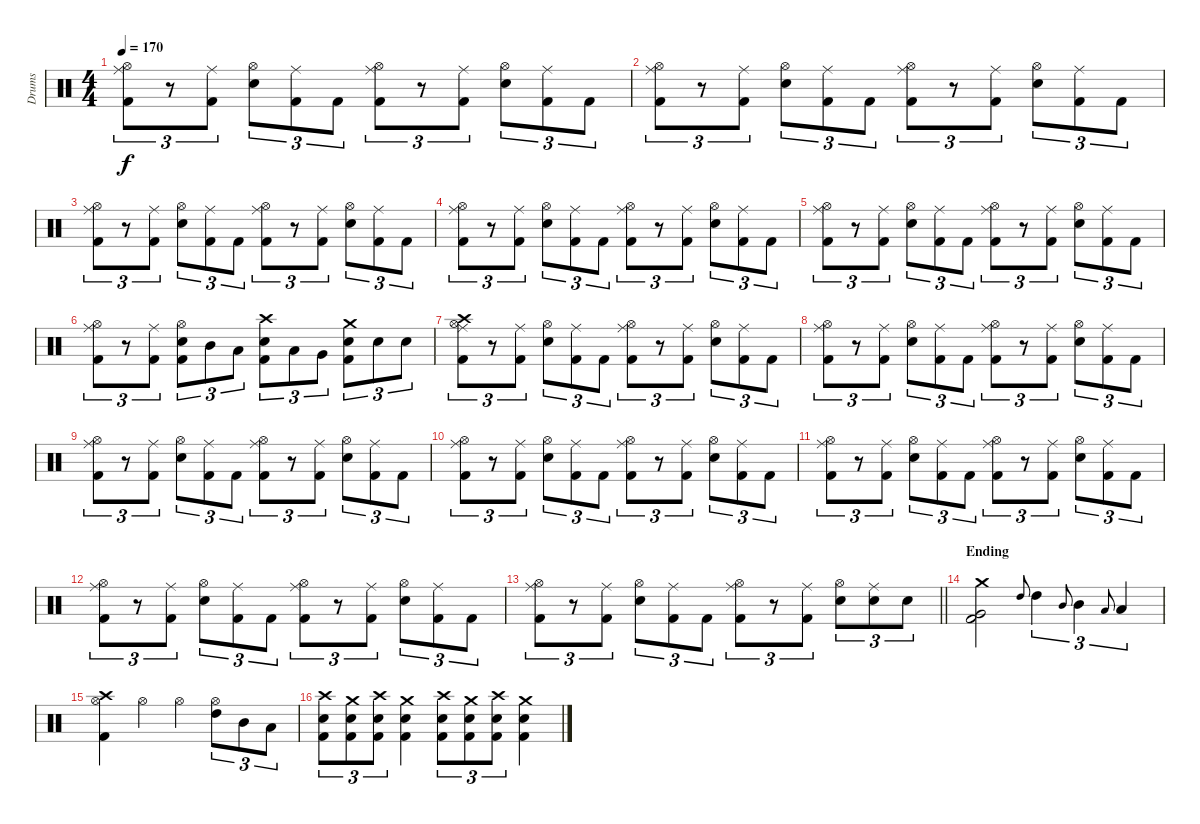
\track ("Drums" "Drums") {instrument percussion}
\staff {score}
\articulation defaults
\ts (4 4)
\tempo 170
\clef neutral
\ks c
("Ride (middle)" "Hi-Hat (open)" "Kick (hit) 2").8{tu (3 2) dy f} r.8{tu (3 2)} ("Ride (middle)" "Kick (hit) 2").8{tu (3 2)} ("Hi-Hat (open)" "Snare (hit) 2").8{tu (3 2)} ("Ride (middle)" "Kick (hit) 2").8{tu (3 2)} "Kick (hit) 2".8{tu (3 2)} ("Ride (middle)" "Hi-Hat (open)" "Kick (hit) 2").8{tu (3 2)} r.8{tu (3 2)} ("Ride (middle)" "Kick (hit) 2").8{tu (3 2)} ("Hi-Hat (open)" "Snare (hit) 2").8{tu (3 2)} ("Ride (middle)" "Kick (hit) 2").8{tu (3 2)} "Kick (hit) 2".8{tu (3 2)} |
("Ride (middle)" "Hi-Hat (open)" "Kick (hit) 2").8{tu (3 2)} r.8{tu (3 2)} ("Ride (middle)" "Kick (hit) 2").8{tu (3 2)} ("Hi-Hat (open)" "Snare (hit) 2").8{tu (3 2)} ("Ride (middle)" "Kick (hit) 2").8{tu (3 2)} "Kick (hit) 2".8{tu (3 2)} ("Ride (middle)" "Hi-Hat (open)" "Kick (hit) 2").8{tu (3 2)} r.8{tu (3 2)} ("Ride (middle)" "Kick (hit) 2").8{tu (3 2)} ("Hi-Hat (open)" "Snare (hit) 2").8{tu (3 2)} ("Ride (middle)" "Kick (hit) 2").8{tu (3 2)} "Kick (hit) 2".8{tu (3 2)} |
("Ride (middle)" "Hi-Hat (open)" "Kick (hit) 2").8{tu (3 2)} r.8{tu (3 2)} ("Ride (middle)" "Kick (hit) 2").8{tu (3 2)} ("Hi-Hat (open)" "Snare (hit) 2").8{tu (3 2)} ("Ride (middle)" "Kick (hit) 2").8{tu (3 2)} "Kick (hit) 2".8{tu (3 2)} ("Ride (middle)" "Hi-Hat (open)" "Kick (hit) 2").8{tu (3 2)} r.8{tu (3 2)} ("Ride (middle)" "Kick (hit) 2").8{tu (3 2)} ("Hi-Hat (open)" "Snare (hit) 2").8{tu (3 2)} ("Ride (middle)" "Kick (hit) 2").8{tu (3 2)} "Kick (hit) 2".8{tu (3 2)} |
("Ride (middle)" "Hi-Hat (open)" "Kick (hit) 2").8{tu (3 2)} r.8{tu (3 2)} ("Ride (middle)" "Kick (hit) 2").8{tu (3 2)} ("Hi-Hat (open)" "Snare (hit) 2").8{tu (3 2)} ("Ride (middle)" "Kick (hit) 2").8{tu (3 2)} "Kick (hit) 2".8{tu (3 2)} ("Ride (middle)" "Hi-Hat (open)" "Kick (hit) 2").8{tu (3 2)} r.8{tu (3 2)} ("Ride (middle)" "Kick (hit) 2").8{tu (3 2)} ("Hi-Hat (open)" "Snare (hit) 2").8{tu (3 2)} ("Ride (middle)" "Kick (hit) 2").8{tu (3 2)} "Kick (hit) 2".8{tu (3 2)} |
("Ride (middle)" "Hi-Hat (open)" "Kick (hit) 2").8{tu (3 2)} r.8{tu (3 2)} ("Ride (middle)" "Kick (hit) 2").8{tu (3 2)} ("Hi-Hat (open)" "Snare (hit) 2").8{tu (3 2)} ("Ride (middle)" "Kick (hit) 2").8{tu (3 2)} "Kick (hit) 2".8{tu (3 2)} ("Ride (middle)" "Hi-Hat (open)" "Kick (hit) 2").8{tu (3 2)} r.8{tu (3 2)} ("Ride (middle)" "Kick (hit) 2").8{tu (3 2)} ("Hi-Hat (open)" "Snare (hit) 2").8{tu (3 2)} ("Ride (middle)" "Kick (hit) 2").8{tu (3 2)} "Kick (hit) 2".8{tu (3 2)} |
("Ride (middle)" "Hi-Hat (open)" "Kick (hit) 2").8{tu (3 2)} r.8{tu (3 2)} ("Ride (middle)" "Kick (hit) 2").8{tu (3 2)} ("Hi-Hat (open)" "Snare (hit) 2" "Kick (hit) 2").8{tu (3 2)} "Mid Tom (hit)".8{tu (3 2)} "Low Tom (hit)".8{tu (3 2)} ("Crash high (hit)" "Snare (hit) 2" "Kick (hit) 2").8{tu (3 2)} "Low Tom (hit)".8{tu (3 2)} "Very Low Tom (hit)".8{tu (3 2)} ("Crash medium (hit)" "Snare (hit) 2" "Kick (hit) 2").8{tu (3 2)} "Snare (hit) 2".8{tu (3 2)} "Snare (hit) 2".8{tu (3 2)} |
("Crash high (hit)" "Ride (middle)" "Hi-Hat (open)" "Kick (hit) 2").8{tu (3 2)} r.8{tu (3 2)} ("Ride (middle)" "Kick (hit) 2").8{tu (3 2)} ("Hi-Hat (open)" "Snare (hit) 2").8{tu (3 2)} ("Ride (middle)" "Kick (hit) 2").8{tu (3 2)} "Kick (hit) 2".8{tu (3 2)} ("Ride (middle)" "Hi-Hat (open)" "Kick (hit) 2").8{tu (3 2)} r.8{tu (3 2)} ("Ride (middle)" "Kick (hit) 2").8{tu (3 2)} ("Hi-Hat (open)" "Snare (hit) 2").8{tu (3 2)} ("Ride (middle)" "Kick (hit) 2").8{tu (3 2)} "Kick (hit) 2".8{tu (3 2)} |
("Ride (middle)" "Hi-Hat (open)" "Kick (hit) 2").8{tu (3 2)} r.8{tu (3 2)} ("Ride (middle)" "Kick (hit) 2").8{tu (3 2)} ("Hi-Hat (open)" "Snare (hit) 2").8{tu (3 2)} ("Ride (middle)" "Kick (hit) 2").8{tu (3 2)} "Kick (hit) 2".8{tu (3 2)} ("Ride (middle)" "Hi-Hat (open)" "Kick (hit) 2").8{tu (3 2)} r.8{tu (3 2)} ("Ride (middle)" "Kick (hit) 2").8{tu (3 2)} ("Hi-Hat (open)" "Snare (hit) 2").8{tu (3 2)} ("Ride (middle)" "Kick (hit) 2").8{tu (3 2)} "Kick (hit) 2".8{tu (3 2)} |
("Ride (middle)" "Hi-Hat (open)" "Kick (hit) 2").8{tu (3 2)} r.8{tu (3 2)} ("Ride (middle)" "Kick (hit) 2").8{tu (3 2)} ("Hi-Hat (open)" "Snare (hit) 2").8{tu (3 2)} ("Ride (middle)" "Kick (hit) 2").8{tu (3 2)} "Kick (hit) 2".8{tu (3 2)} ("Ride (middle)" "Hi-Hat (open)" "Kick (hit) 2").8{tu (3 2)} r.8{tu (3 2)} ("Ride (middle)" "Kick (hit) 2").8{tu (3 2)} ("Hi-Hat (open)" "Snare (hit) 2").8{tu (3 2)} ("Ride (middle)" "Kick (hit) 2").8{tu (3 2)} "Kick (hit) 2".8{tu (3 2)} |
("Ride (middle)" "Hi-Hat (open)" "Kick (hit) 2").8{tu (3 2)} r.8{tu (3 2)} ("Ride (middle)" "Kick (hit) 2").8{tu (3 2)} ("Hi-Hat (open)" "Snare (hit) 2").8{tu (3 2)} ("Ride (middle)" "Kick (hit) 2").8{tu (3 2)} "Kick (hit) 2".8{tu (3 2)} ("Ride (middle)" "Hi-Hat (open)" "Kick (hit) 2").8{tu (3 2)} r.8{tu (3 2)} ("Ride (middle)" "Kick (hit) 2").8{tu (3 2)} ("Hi-Hat (open)" "Snare (hit) 2").8{tu (3 2)} ("Ride (middle)" "Kick (hit) 2").8{tu (3 2)} "Kick (hit) 2".8{tu (3 2)} |
("Ride (middle)" "Hi-Hat (open)" "Kick (hit) 2").8{tu (3 2)} r.8{tu (3 2)} ("Ride (middle)" "Kick (hit) 2").8{tu (3 2)} ("Hi-Hat (open)" "Snare (hit) 2").8{tu (3 2)} ("Ride (middle)" "Kick (hit) 2").8{tu (3 2)} "Kick (hit) 2".8{tu (3 2)} ("Ride (middle)" "Hi-Hat (open)" "Kick (hit) 2").8{tu (3 2)} r.8{tu (3 2)} ("Ride (middle)" "Kick (hit) 2").8{tu (3 2)} ("Hi-Hat (open)" "Snare (hit) 2").8{tu (3 2)} ("Ride (middle)" "Kick (hit) 2").8{tu (3 2)} "Kick (hit) 2".8{tu (3 2)} |
("Ride (middle)" "Hi-Hat (open)" "Kick (hit) 2").8{tu (3 2)} r.8{tu (3 2)} ("Ride (middle)" "Kick (hit) 2").8{tu (3 2)} ("Hi-Hat (open)" "Snare (hit) 2").8{tu (3 2)} ("Ride (middle)" "Kick (hit) 2").8{tu (3 2)} "Kick (hit) 2".8{tu (3 2)} ("Ride (middle)" "Hi-Hat (open)" "Kick (hit) 2").8{tu (3 2)} r.8{tu (3 2)} ("Ride (middle)" "Kick (hit) 2").8{tu (3 2)} ("Hi-Hat (open)" "Snare (hit) 2").8{tu (3 2)} ("Ride (middle)" "Kick (hit) 2").8{tu (3 2)} "Kick (hit) 2".8{tu (3 2)} |
\barLineRight lightlight
("Ride (middle)" "Hi-Hat (open)" "Kick (hit) 2").8{tu (3 2)} r.8{tu (3 2)} ("Ride (middle)" "Kick (hit) 2").8{tu (3 2)} ("Hi-Hat (open)" "Snare (hit) 2").8{tu (3 2)} ("Ride (middle)" "Kick (hit) 2").8{tu (3 2)} "Kick (hit) 2".8{tu (3 2)} ("Ride (middle)" "Hi-Hat (open)" "Kick (hit) 2").8{tu (3 2)} r.8{tu (3 2)} ("Ride (middle)" "Kick (hit) 2").8{tu (3 2)} ("Hi-Hat (open)" "Snare (hit) 2").8{tu (3 2)} ("Ride (middle)" "Snare (hit) 2").8{tu (3 2)} "Snare (hit) 2".8{tu (3 2)} |
\section ("" "Ending")
("Crash medium (hit)" "Very Low Tom (hit)" "Kick (hit) 2").2 "High Tom (hit)".8{gr onbeat} "High Tom (hit)".4{tu (3 2)} "Mid Tom (hit)".8{gr onbeat} "Mid Tom (hit)".4{tu (3 2)} "Low Tom (hit)".8{gr onbeat} "Low Tom (hit)".4{tu (3 2)} |
("Crash high (hit)" "Hi-Hat (open)" "Kick (hit) 2").4 "Hi-Hat (open)".4 "Hi-Hat (open)".4 ("Hi-Hat (open)" "High Tom (hit)").8{tu (3 2)} "Mid Tom (hit)".8{tu (3 2)} "Low Tom (hit)".8{tu (3 2)} |
("Crash high (hit)" "Snare (hit) 2" "Kick (hit) 2").8{tu (3 2)} ("Crash medium (hit)" "Snare (hit) 2" "Kick (hit) 2").8{tu (3 2)} ("Crash high (hit)" "Snare (hit) 2" "Kick (hit) 2").8{tu (3 2)} ("Crash medium (hit)" "Snare (hit) 2" "Kick (hit) 2").4 ("Crash high (hit)" "Snare (hit) 2" "Kick (hit) 2").8{tu (3 2)} ("Crash medium (hit)" "Snare (hit) 2" "Kick (hit) 2").8{tu (3 2)} ("Crash high (hit)" "Snare (hit) 2" "Kick (hit) 2").8{tu (3 2)} ("Crash medium (hit)" "Snare (hit) 2" "Kick (hit) 2").4
